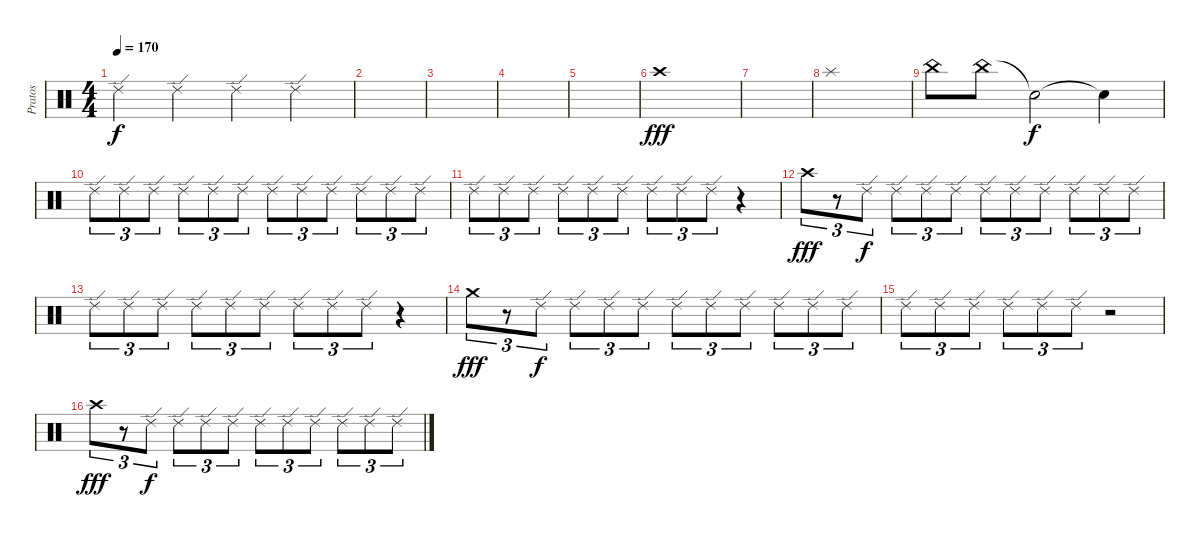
\track ("Pratos" "Pratos") {instrument percussion}
\staff {score}
\articulation defaults
\ts (4 4)
\tempo 170
\clef neutral
\ks c "Ride (edge) 2".4{dy f} "Ride (edge) 2".4 "Ride (edge) 2".4 "Ride (edge) 2".4
|
|
|
|
|
"Crash high (hit)".1{dy fff} |
|
"Splash (hit)".1 |
"China (hit)".8 "China (hit)".8 "Snare (hit)"{t}.2{dy f} "Snare (hit)"{t}.4 |
"Ride (edge) 2".8{tu (3 2)} "Ride (edge) 2".8{tu (3 2)} "Ride (edge) 2".8{tu (3 2)} "Ride (edge) 2".8{tu (3 2)} "Ride (edge) 2".8{tu (3 2)} "Ride (edge) 2".8{tu (3 2)} "Ride (edge) 2".8{tu (3 2)} "Ride (edge) 2".8{tu (3 2)} "Ride (edge) 2".8{tu (3 2)} "Ride (edge) 2".8{tu (3 2)} "Ride (edge) 2".8{tu (3 2)} "Ride (edge) 2".8{tu (3 2)} |
"Ride (edge) 2".8{tu (3 2)} "Ride (edge) 2".8{tu (3 2)} "Ride (edge) 2".8{tu (3 2)} "Ride (edge) 2".8{tu (3 2)} "Ride (edge) 2".8{tu (3 2)} "Ride (edge) 2".8{tu (3 2)} "Ride (edge) 2".8{tu (3 2)} "Ride (edge) 2".8{tu (3 2)} "Ride (edge) 2".8{tu (3 2)} r.4 |
"Crash high (hit)".8{tu (3 2) dy fff} r.8{tu (3 2)} "Ride (edge) 2".8{tu (3 2) dy f} "Ride (edge) 2".8{tu (3 2)} "Ride (edge) 2".8{tu (3 2)} "Ride (edge) 2".8{tu (3 2)} "Ride (edge) 2".8{tu (3 2)} "Ride (edge) 2".8{tu (3 2)} "Ride (edge) 2".8{tu (3 2)} "Ride (edge) 2".8{tu (3 2)} "Ride (edge) 2".8{tu (3 2)} "Ride (edge) 2".8{tu (3 2)} |
"Ride (edge) 2".8{tu (3 2)} "Ride (edge) 2".8{tu (3 2)} "Ride (edge) 2".8{tu (3 2)} "Ride (edge) 2".8{tu (3 2)} "Ride (edge) 2".8{tu (3 2)} "Ride (edge) 2".8{tu (3 2)} "Ride (edge) 2".8{tu (3 2)} "Ride (edge) 2".8{tu (3 2)} "Ride (edge) 2".8{tu (3 2)} r.4 |
"Crash medium (hit)".8{tu (3 2) dy fff} r.8{tu (3 2)} "Ride (edge) 2".8{tu (3 2) dy f} "Ride (edge) 2".8{tu (3 2)} "Ride (edge) 2".8{tu (3 2)} "Ride (edge) 2".8{tu (3 2)} "Ride (edge) 2".8{tu (3 2)} "Ride (edge) 2".8{tu (3 2)} "Ride (edge) 2".8{tu (3 2)} "Ride (edge) 2".8{tu (3 2)} "Ride (edge) 2".8{tu (3 2)} "Ride (edge) 2".8{tu (3 2)} |
"Ride (edge) 2".8{tu (3 2)} "Ride (edge) 2".8{tu (3 2)} "Ride (edge) 2".8{tu (3 2)} "Ride (edge) 2".8{tu (3 2)} "Ride (edge) 2".8{tu (3 2)} "Ride (edge) 2".8{tu (3 2)} r.2 |
"Crash high (hit)".8{tu (3 2) dy fff} r.8{tu (3 2)} "Ride (edge) 2".8{tu (3 2) dy f} "Ride (edge) 2".8{tu (3 2)} "Ride (edge) 2".8{tu (3 2)} "Ride (edge) 2".8{tu (3 2)} "Ride (edge) 2".8{tu (3 2)} "Ride (edge) 2".8{tu (3 2)} "Ride (edge) 2".8{tu (3 2)} "Ride (edge) 2".8{tu (3 2)} "Ride (edge) 2".8{tu (3 2)} "Ride (edge) 2".8{tu (3 2)}
